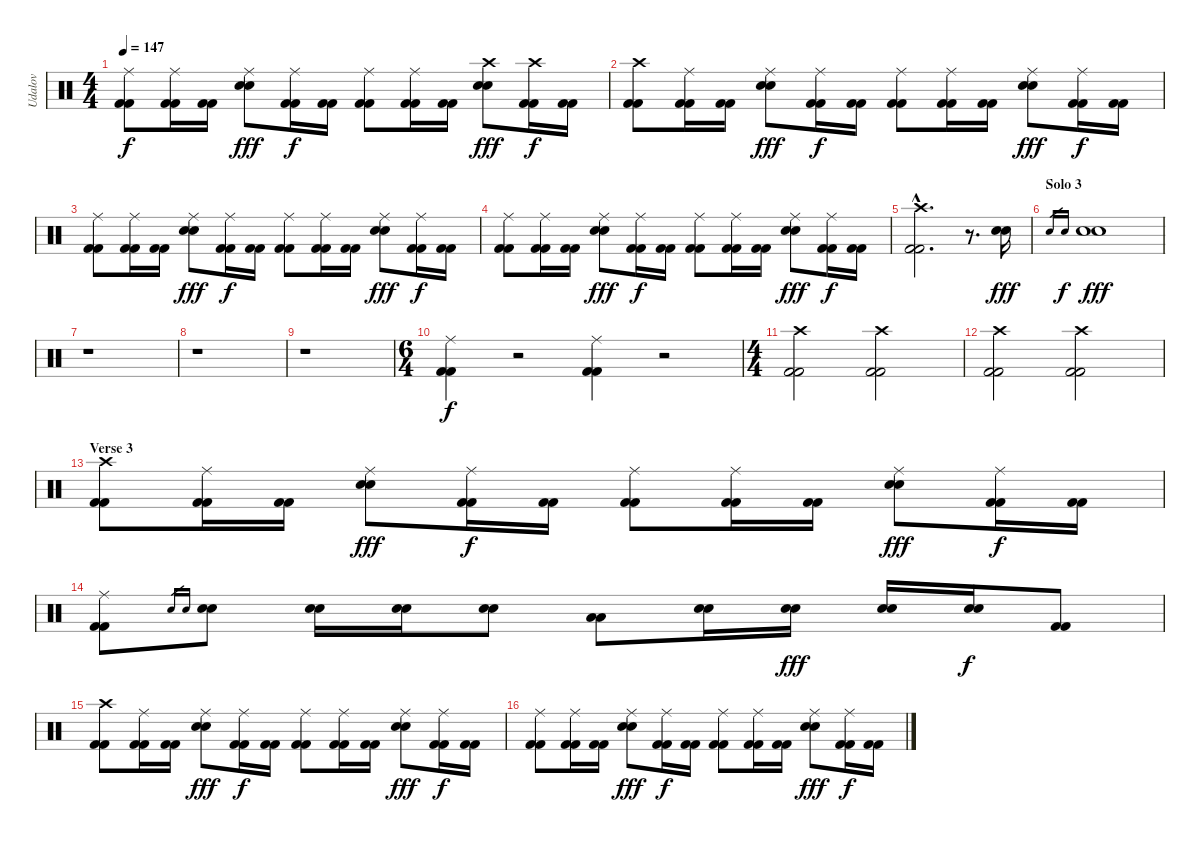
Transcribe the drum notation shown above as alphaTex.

\track ("Udalov" "Udalov") {instrument percussion}
\staff {score}
\articulation defaults
\ts (4 4)
\tempo 147
\clef neutral
\ks c
("Ride (middle)" "Kick (hit) 2" "Kick (hit) 2").8{dy f} ("Ride (middle)" "Kick (hit) 2" "Kick (hit) 2").16 ("Kick (hit) 2" "Kick (hit) 2").16 ("Ride (middle)" "Electric Snare (hit)" "Electric Snare (hit)").8{dy fff} ("Ride (middle)" "Kick (hit) 2" "Kick (hit) 2").16{dy f} ("Kick (hit) 2" "Kick (hit) 2").16 ("Ride (middle)" "Kick (hit) 2" "Kick (hit) 2").8 ("Ride (middle)" "Kick (hit) 2" "Kick (hit) 2").16 ("Kick (hit) 2" "Kick (hit) 2").16 ("Crash high (hit)" "Electric Snare (hit)" "Electric Snare (hit)").8{dy fff} ("Crash high (hit)" "Kick (hit) 2" "Kick (hit) 2").16{dy f} ("Kick (hit) 2" "Kick (hit) 2").16 |
("Crash high (hit)" "Kick (hit) 2" "Kick (hit) 2").8 ("Ride (middle)" "Kick (hit) 2" "Kick (hit) 2").16 ("Kick (hit) 2" "Kick (hit) 2").16 ("Ride (middle)" "Electric Snare (hit)" "Electric Snare (hit)").8{dy fff} ("Ride (middle)" "Kick (hit) 2" "Kick (hit) 2").16{dy f} ("Kick (hit) 2" "Kick (hit) 2").16 ("Ride (middle)" "Kick (hit) 2" "Kick (hit) 2").8 ("Ride (middle)" "Kick (hit) 2" "Kick (hit) 2").16 ("Kick (hit) 2" "Kick (hit) 2").16 ("Ride (middle)" "Electric Snare (hit)" "Electric Snare (hit)").8{dy fff} ("Ride (middle)" "Kick (hit) 2" "Kick (hit) 2").16{dy f} ("Kick (hit) 2" "Kick (hit) 2").16 |
("Ride (middle)" "Kick (hit) 2" "Kick (hit) 2").8 ("Ride (middle)" "Kick (hit) 2" "Kick (hit) 2").16 ("Kick (hit) 2" "Kick (hit) 2").16 ("Ride (middle)" "Electric Snare (hit)" "Electric Snare (hit)").8{dy fff} ("Ride (middle)" "Kick (hit) 2" "Kick (hit) 2").16{dy f} ("Kick (hit) 2" "Kick (hit) 2").16 ("Ride (middle)" "Kick (hit) 2" "Kick (hit) 2").8 ("Ride (middle)" "Kick (hit) 2" "Kick (hit) 2").16 ("Kick (hit) 2" "Kick (hit) 2").16 ("Ride (middle)" "Electric Snare (hit)" "Electric Snare (hit)").8{dy fff} ("Ride (middle)" "Kick (hit) 2" "Kick (hit) 2").16{dy f} ("Kick (hit) 2" "Kick (hit) 2").16 |
("Ride (middle)" "Kick (hit) 2" "Kick (hit) 2").8 ("Ride (middle)" "Kick (hit) 2" "Kick (hit) 2").16 ("Kick (hit) 2" "Kick (hit) 2").16 ("Ride (middle)" "Electric Snare (hit)" "Electric Snare (hit)").8{dy fff} ("Ride (middle)" "Kick (hit) 2" "Kick (hit) 2").16{dy f} ("Kick (hit) 2" "Kick (hit) 2").16 ("Ride (middle)" "Kick (hit) 2" "Kick (hit) 2").8 ("Ride (middle)" "Kick (hit) 2" "Kick (hit) 2").16 ("Kick (hit) 2" "Kick (hit) 2").16 ("Ride (middle)" "Electric Snare (hit)" "Electric Snare (hit)").8{dy fff} ("Ride (middle)" "Kick (hit) 2" "Kick (hit) 2").16{dy f} ("Kick (hit) 2" "Kick (hit) 2").16 |
("Crash high (hit)"{hac} "Kick (hit) 2"{hac} "Kick (hit) 2"{hac}).2{d} r.8{d} ("Electric Snare (hit)" "Electric Snare (hit)").16{dy fff} |
\section ("" "Solo 3")
"Electric Snare (hit)".16{gr} "Electric Snare (hit)".16{gr dy f} ("Electric Snare (hit)" "Electric Snare (hit)").1{dy fff} |
r.1 |
r.1 |
r.1 |
\ts (6 4)
("Ride (middle)" "Kick (hit) 2" "Kick (hit) 2").4{dy f} r.2 ("Ride (middle)" "Kick (hit) 2" "Kick (hit) 2").4 r.2 |
\ts (4 4)
("Crash high (hit)" "Kick (hit) 2" "Kick (hit) 2").2 ("Crash high (hit)" "Kick (hit) 2" "Kick (hit) 2").2 |
("Crash high (hit)" "Kick (hit) 2" "Kick (hit) 2").2 ("Crash high (hit)" "Kick (hit) 2" "Kick (hit) 2").2 |
\section ("" "Verse 3")
("Crash high (hit)" "Kick (hit) 2" "Kick (hit) 2").8 ("Ride (middle)" "Kick (hit) 2" "Kick (hit) 2").16 ("Kick (hit) 2" "Kick (hit) 2").16 ("Ride (middle)" "Electric Snare (hit)" "Electric Snare (hit)").8{dy fff} ("Ride (middle)" "Kick (hit) 2" "Kick (hit) 2").16{dy f} ("Kick (hit) 2" "Kick (hit) 2").16 ("Ride (middle)" "Kick (hit) 2" "Kick (hit) 2").8 ("Ride (middle)" "Kick (hit) 2" "Kick (hit) 2").16 ("Kick (hit) 2" "Kick (hit) 2").16 ("Ride (middle)" "Electric Snare (hit)" "Electric Snare (hit)").8{dy fff} ("Ride (middle)" "Kick (hit) 2" "Kick (hit) 2").16{dy f} ("Kick (hit) 2" "Kick (hit) 2").16 |
("Ride (middle)" "Kick (hit) 2" "Kick (hit) 2").8 "Electric Snare (hit)".16{gr} "Electric Snare (hit)".16{gr} ("Electric Snare (hit)" "Electric Snare (hit)").8 ("Electric Snare (hit)" "Electric Snare (hit)").16 ("Electric Snare (hit)" "Electric Snare (hit)").16 ("Electric Snare (hit)" "Electric Snare (hit)").8 ("Low Tom (hit)" "Low Tom (hit)").8 ("Electric Snare (hit)" "Electric Snare (hit)").16 ("Electric Snare (hit)" "Electric Snare (hit)").16{dy fff} ("Electric Snare (hit)" "Electric Snare (hit)").16 ("Electric Snare (hit)" "Electric Snare (hit)").16{dy f} ("Kick (hit) 2" "Kick (hit) 2").8 |
("Crash high (hit)" "Kick (hit) 2" "Kick (hit) 2").8 ("Ride (middle)" "Kick (hit) 2" "Kick (hit) 2").16 ("Kick (hit) 2" "Kick (hit) 2").16 ("Ride (middle)" "Electric Snare (hit)" "Electric Snare (hit)").8{dy fff} ("Ride (middle)" "Kick (hit) 2" "Kick (hit) 2").16{dy f} ("Kick (hit) 2" "Kick (hit) 2").16 ("Ride (middle)" "Kick (hit) 2" "Kick (hit) 2").8 ("Ride (middle)" "Kick (hit) 2" "Kick (hit) 2").16 ("Kick (hit) 2" "Kick (hit) 2").16 ("Ride (middle)" "Electric Snare (hit)" "Electric Snare (hit)").8{dy fff} ("Ride (middle)" "Kick (hit) 2" "Kick (hit) 2").16{dy f} ("Kick (hit) 2" "Kick (hit) 2").16 |
("Ride (middle)" "Kick (hit) 2" "Kick (hit) 2").8 ("Ride (middle)" "Kick (hit) 2" "Kick (hit) 2").16 ("Kick (hit) 2" "Kick (hit) 2").16 ("Ride (middle)" "Electric Snare (hit)" "Electric Snare (hit)").8{dy fff} ("Ride (middle)" "Kick (hit) 2" "Kick (hit) 2").16{dy f} ("Kick (hit) 2" "Kick (hit) 2").16 ("Ride (middle)" "Kick (hit) 2" "Kick (hit) 2").8 ("Ride (middle)" "Kick (hit) 2" "Kick (hit) 2").16 ("Kick (hit) 2" "Kick (hit) 2").16 ("Ride (middle)" "Electric Snare (hit)" "Electric Snare (hit)").8{dy fff} ("Ride (middle)" "Kick (hit) 2" "Kick (hit) 2").16{dy f} ("Kick (hit) 2" "Kick (hit) 2").16
